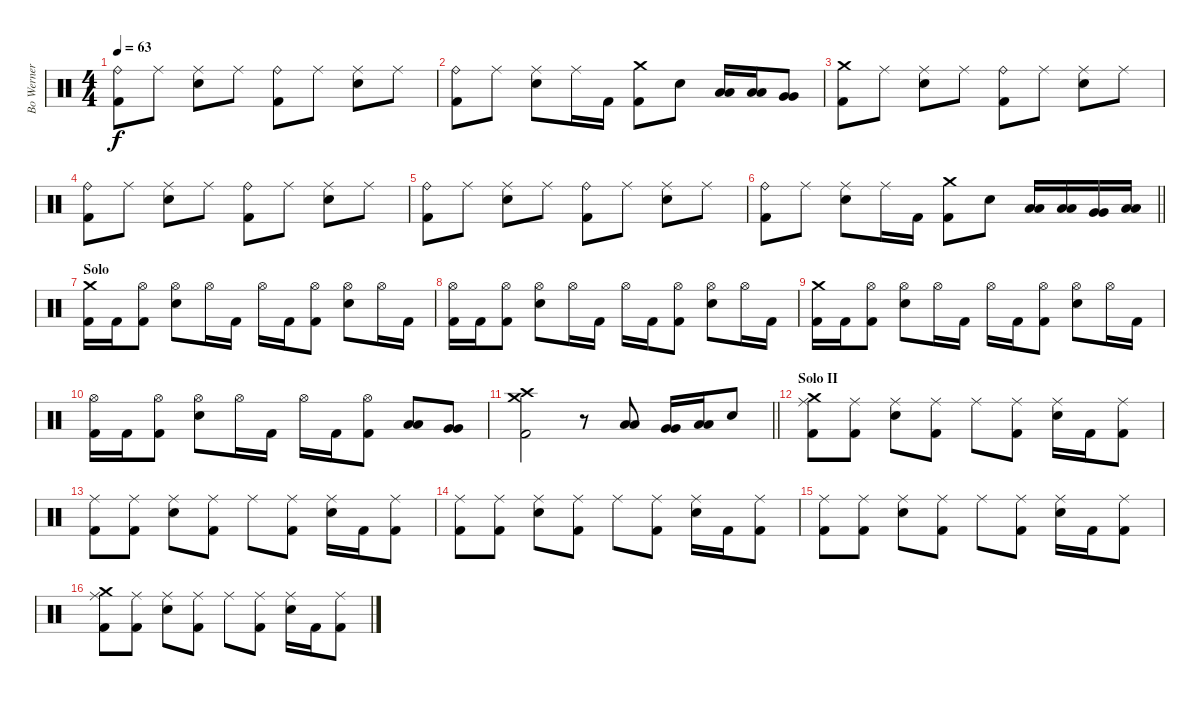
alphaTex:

\track ("Bo Werner " "Bo Werner ") {instrument percussion}
\staff {score}
\articulation defaults
\ts (4 4)
\tempo 63
\clef neutral
\ks c
("Ride (bell)" "Kick (hit) 2").8{dy f} "Ride (middle)".8 ("Ride (middle)" "Electric Snare (hit)").8 "Ride (middle)".8 ("Ride (bell)" "Kick (hit) 2").8 "Ride (middle)".8 ("Ride (middle)" "Electric Snare (hit)").8 "Ride (middle)".8 |
("Ride (bell)" "Kick (hit) 2").8 "Ride (middle)".8 ("Ride (middle)" "Electric Snare (hit)").8 "Ride (middle)".16 "Kick (hit) 2".16 ("Crash medium (hit)" "Kick (hit) 2").8 "Electric Snare (hit)".8 ("Low Tom (hit)" "Low Tom (hit)").16 ("Low Tom (hit)" "Low Tom (hit)").16 ("Very Low Tom (hit)" "Very Low Tom (hit)").8 |
("Crash medium (hit)" "Kick (hit) 2").8 "Ride (middle)".8 ("Ride (middle)" "Electric Snare (hit)").8 "Ride (middle)".8 ("Ride (bell)" "Kick (hit) 2").8 "Ride (middle)".8 ("Ride (middle)" "Electric Snare (hit)").8 "Ride (middle)".8 |
("Ride (bell)" "Kick (hit) 2").8 "Ride (middle)".8 ("Ride (middle)" "Electric Snare (hit)").8 "Ride (middle)".8 ("Ride (bell)" "Kick (hit) 2").8 "Ride (middle)".8 ("Ride (middle)" "Electric Snare (hit)").8 "Ride (middle)".8 |
("Ride (bell)" "Kick (hit) 2").8 "Ride (middle)".8 ("Ride (middle)" "Electric Snare (hit)").8 "Ride (middle)".8 ("Ride (bell)" "Kick (hit) 2").8 "Ride (middle)".8 ("Ride (middle)" "Electric Snare (hit)").8 "Ride (middle)".8 |
\barLineRight lightlight
("Ride (bell)" "Kick (hit) 2").8 "Ride (middle)".8 ("Ride (middle)" "Electric Snare (hit)").8 "Ride (middle)".16 "Kick (hit) 2".16 ("Crash medium (hit)" "Kick (hit) 2").8 "Electric Snare (hit)".8 ("Low Tom (hit)" "Low Tom (hit)").16 ("Low Tom (hit)" "Low Tom (hit)").16 ("Very Low Tom (hit)" "Very Low Tom (hit)").16 ("Low Floor Tom (hit)" "Low Floor Tom (hit)").16 |
\section ("" "Solo")
("Crash medium (hit)" "Kick (hit) 2").16 "Kick (hit) 2".16 ("Hi-Hat (open)" "Kick (hit) 2").8 ("Hi-Hat (open)" "Electric Snare (hit)").8 "Hi-Hat (open)".16 "Kick (hit) 2".16 "Hi-Hat (open)".16 "Kick (hit) 2".16 ("Hi-Hat (open)" "Kick (hit) 2").8 ("Hi-Hat (open)" "Electric Snare (hit)").8 "Hi-Hat (open)".16 "Kick (hit) 2".16 |
("Hi-Hat (open)" "Kick (hit) 2").16 "Kick (hit) 2".16 ("Hi-Hat (open)" "Kick (hit) 2").8 ("Hi-Hat (open)" "Electric Snare (hit)").8 "Hi-Hat (open)".16 "Kick (hit) 2".16 "Hi-Hat (open)".16 "Kick (hit) 2".16 ("Hi-Hat (open)" "Kick (hit) 2").8 ("Hi-Hat (open)" "Electric Snare (hit)").8 "Hi-Hat (open)".16 "Kick (hit) 2".16 |
("Crash medium (hit)" "Kick (hit) 2").16 "Kick (hit) 2".16 ("Hi-Hat (open)" "Kick (hit) 2").8 ("Hi-Hat (open)" "Electric Snare (hit)").8 "Hi-Hat (open)".16 "Kick (hit) 2".16 "Hi-Hat (open)".16 "Kick (hit) 2".16 ("Hi-Hat (open)" "Kick (hit) 2").8 ("Hi-Hat (open)" "Electric Snare (hit)").8 "Hi-Hat (open)".16 "Kick (hit) 2".16 |
("Hi-Hat (open)" "Kick (hit) 2").16 "Kick (hit) 2".16 ("Hi-Hat (open)" "Kick (hit) 2").8 ("Hi-Hat (open)" "Electric Snare (hit)").8 "Hi-Hat (open)".16 "Kick (hit) 2".16 "Hi-Hat (open)".16 "Kick (hit) 2".16 ("Hi-Hat (open)" "Kick (hit) 2").8 ("Low Tom (hit)" "Low Tom (hit)").8 ("Very Low Tom (hit)" "Very Low Tom (hit)").8 |
\barLineRight lightlight
("Crash medium (hit)" "Crash high (hit)" "Kick (hit) 2").2 r.8 ("Low Tom (hit)" "Low Tom (hit)").8 ("Very Low Tom (hit)" "Very Low Tom (hit)").16 ("Low Floor Tom (hit)" "Low Floor Tom (hit)").16 "Snare (hit) 2".8 |
\section ("" "Solo II")
("Crash medium (hit)" "Ride (middle)" "Kick (hit) 2").8 ("Ride (middle)" "Kick (hit) 2").8 ("Ride (middle)" "Snare (hit) 2").8 ("Ride (middle)" "Kick (hit) 2").8 "Ride (middle)".8 ("Ride (middle)" "Kick (hit) 2").8 ("Ride (middle)" "Snare (hit) 2").16 "Kick (hit) 2".16 ("Ride (middle)" "Kick (hit) 2").8 |
("Ride (middle)" "Kick (hit) 2").8 ("Ride (middle)" "Kick (hit) 2").8 ("Ride (middle)" "Snare (hit) 2").8 ("Ride (middle)" "Kick (hit) 2").8 "Ride (middle)".8 ("Ride (middle)" "Kick (hit) 2").8 ("Ride (middle)" "Snare (hit) 2").16 "Kick (hit) 2".16 ("Ride (middle)" "Kick (hit) 2").8 |
("Ride (middle)" "Kick (hit) 2").8 ("Ride (middle)" "Kick (hit) 2").8 ("Ride (middle)" "Snare (hit) 2").8 ("Ride (middle)" "Kick (hit) 2").8 "Ride (middle)".8 ("Ride (middle)" "Kick (hit) 2").8 ("Ride (middle)" "Snare (hit) 2").16 "Kick (hit) 2".16 ("Ride (middle)" "Kick (hit) 2").8 |
("Ride (middle)" "Kick (hit) 2").8 ("Ride (middle)" "Kick (hit) 2").8 ("Ride (middle)" "Snare (hit) 2").8 ("Ride (middle)" "Kick (hit) 2").8 "Ride (middle)".8 ("Ride (middle)" "Kick (hit) 2").8 ("Ride (middle)" "Snare (hit) 2").16 "Kick (hit) 2".16 ("Ride (middle)" "Kick (hit) 2").8 |
("Crash medium (hit)" "Ride (middle)" "Kick (hit) 2").8 ("Ride (middle)" "Kick (hit) 2").8 ("Ride (middle)" "Snare (hit) 2").8 ("Ride (middle)" "Kick (hit) 2").8 "Ride (middle)".8 ("Ride (middle)" "Kick (hit) 2").8 ("Ride (middle)" "Snare (hit) 2").16 "Kick (hit) 2".16 ("Ride (middle)" "Kick (hit) 2").8
